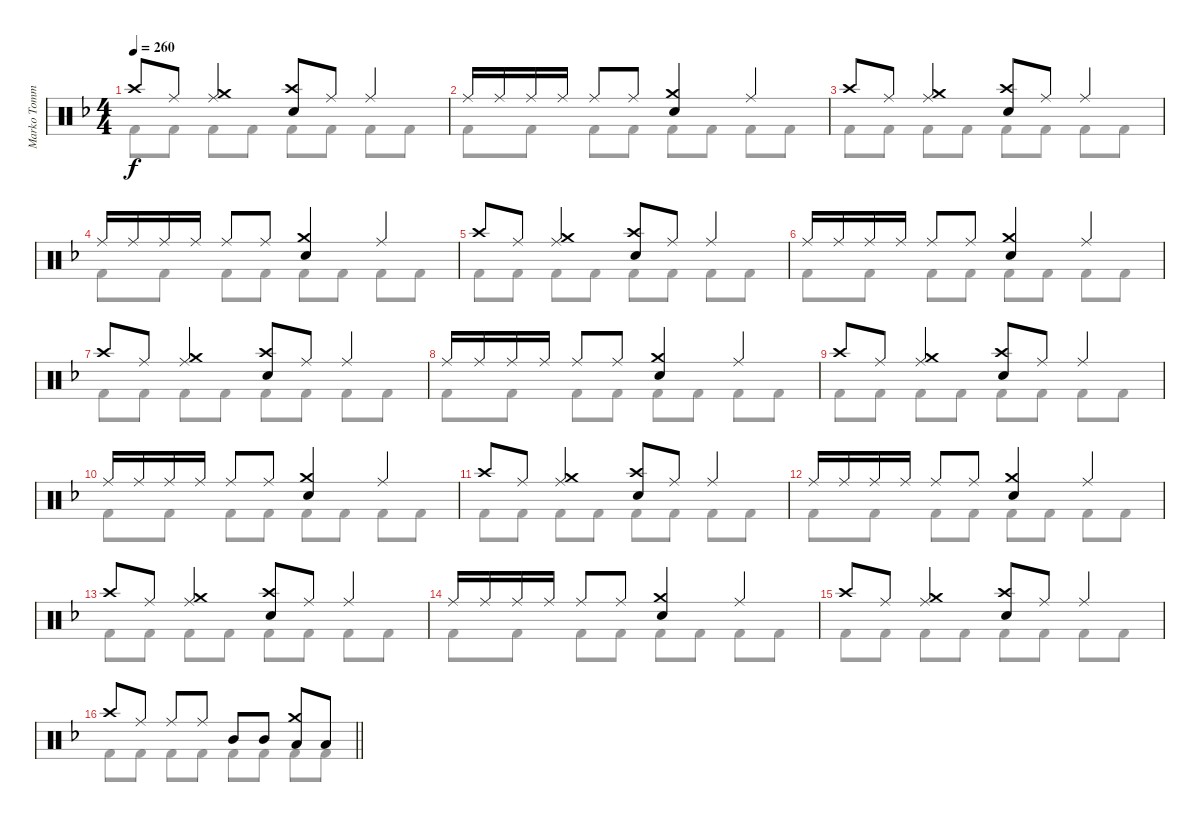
\track ("Marko Tommila (drums)" "Marko Tomm") {instrument percussion}
\staff {score}
\articulation defaults
\voice
\ts (4 4)
\tempo 260
\clef neutral
\ks dminor "Crash high (hit)".8{dy f} "Ride (middle)".8
("Ride (middle)" "Crash medium (hit)").4 ("Crash high (hit)" "Electric Snare (hit)").8 "Ride (middle)".8 "Ride (middle)".4 |
"Ride (middle)".16 "Ride (middle)".16 "Ride (middle)".16 "Ride (middle)".16 "Ride (middle)".8 "Ride (middle)".8 ("Crash medium (hit)" "Electric Snare (hit)").4 "Ride (middle)".4 |
"Crash high (hit)".8 "Ride (middle)".8 ("Ride (middle)" "Crash medium (hit)").4 ("Crash high (hit)" "Electric Snare (hit)").8 "Ride (middle)".8 "Ride (middle)".4 |
"Ride (middle)".16 "Ride (middle)".16 "Ride (middle)".16 "Ride (middle)".16 "Ride (middle)".8 "Ride (middle)".8 ("Crash medium (hit)" "Electric Snare (hit)").4 "Ride (middle)".4 |
"Crash high (hit)".8 "Ride (middle)".8 ("Ride (middle)" "Crash medium (hit)").4 ("Crash high (hit)" "Electric Snare (hit)").8 "Ride (middle)".8 "Ride (middle)".4 |
"Ride (middle)".16 "Ride (middle)".16 "Ride (middle)".16 "Ride (middle)".16 "Ride (middle)".8 "Ride (middle)".8 ("Crash medium (hit)" "Electric Snare (hit)").4 "Ride (middle)".4 |
"Crash high (hit)".8 "Ride (middle)".8 ("Ride (middle)" "Crash medium (hit)").4 ("Crash high (hit)" "Electric Snare (hit)").8 "Ride (middle)".8 "Ride (middle)".4 |
"Ride (middle)".16 "Ride (middle)".16 "Ride (middle)".16 "Ride (middle)".16 "Ride (middle)".8 "Ride (middle)".8 ("Crash medium (hit)" "Electric Snare (hit)").4 "Ride (middle)".4 |
"Crash high (hit)".8 "Ride (middle)".8 ("Ride (middle)" "Crash medium (hit)").4 ("Crash high (hit)" "Electric Snare (hit)").8 "Ride (middle)".8 "Ride (middle)".4 |
"Ride (middle)".16 "Ride (middle)".16 "Ride (middle)".16 "Ride (middle)".16 "Ride (middle)".8 "Ride (middle)".8 ("Crash medium (hit)" "Electric Snare (hit)").4 "Ride (middle)".4 |
"Crash high (hit)".8 "Ride (middle)".8 ("Ride (middle)" "Crash medium (hit)").4 ("Crash high (hit)" "Electric Snare (hit)").8 "Ride (middle)".8 "Ride (middle)".4 |
"Ride (middle)".16 "Ride (middle)".16 "Ride (middle)".16 "Ride (middle)".16 "Ride (middle)".8 "Ride (middle)".8 ("Crash medium (hit)" "Electric Snare (hit)").4 "Ride (middle)".4 |
"Crash high (hit)".8 "Ride (middle)".8 ("Ride (middle)" "Crash medium (hit)").4 ("Crash high (hit)" "Electric Snare (hit)").8 "Ride (middle)".8 "Ride (middle)".4 |
"Ride (middle)".16 "Ride (middle)".16 "Ride (middle)".16 "Ride (middle)".16 "Ride (middle)".8 "Ride (middle)".8 ("Crash medium (hit)" "Electric Snare (hit)").4 "Ride (middle)".4 |
"Crash high (hit)".8 "Ride (middle)".8 ("Ride (middle)" "Crash medium (hit)").4 ("Crash high (hit)" "Electric Snare (hit)").8 "Ride (middle)".8 "Ride (middle)".4 |
\barLineRight lightlight "Crash high (hit)".8 "Ride (middle)".8 "Ride (middle)".8 "Ride (middle)".8 "Mid Tom (hit)".8 "Mid Tom (hit)".8
("Low Tom (hit)" "Crash medium (hit)").8 "Low Tom (hit)".8
\voice
\clef neutral
\ottava regular
\simile none
\ks dminor "Kick (hit) 2".8{dy f} "Kick (hit) 2".8 "Kick (hit) 2".8 "Kick (hit) 2".8 "Kick (hit) 2".8 "Kick (hit) 2".8 "Kick (hit) 2".8 "Kick (hit) 2".8
|
"Kick (hit) 2".8 "Kick (hit) 2".8 "Kick (hit) 2".8 "Kick (hit) 2".8 "Kick (hit) 2".8 "Kick (hit) 2".8 "Kick (hit) 2".8 "Kick (hit) 2".8 |
"Kick (hit) 2".8 "Kick (hit) 2".8 "Kick (hit) 2".8 "Kick (hit) 2".8 "Kick (hit) 2".8 "Kick (hit) 2".8 "Kick (hit) 2".8 "Kick (hit) 2".8 |
"Kick (hit) 2".8 "Kick (hit) 2".8 "Kick (hit) 2".8 "Kick (hit) 2".8 "Kick (hit) 2".8 "Kick (hit) 2".8 "Kick (hit) 2".8 "Kick (hit) 2".8 |
"Kick (hit) 2".8 "Kick (hit) 2".8 "Kick (hit) 2".8 "Kick (hit) 2".8 "Kick (hit) 2".8 "Kick (hit) 2".8 "Kick (hit) 2".8 "Kick (hit) 2".8 |
"Kick (hit) 2".8 "Kick (hit) 2".8 "Kick (hit) 2".8 "Kick (hit) 2".8 "Kick (hit) 2".8 "Kick (hit) 2".8 "Kick (hit) 2".8 "Kick (hit) 2".8 |
"Kick (hit) 2".8 "Kick (hit) 2".8 "Kick (hit) 2".8 "Kick (hit) 2".8 "Kick (hit) 2".8 "Kick (hit) 2".8 "Kick (hit) 2".8 "Kick (hit) 2".8 |
"Kick (hit) 2".8 "Kick (hit) 2".8 "Kick (hit) 2".8 "Kick (hit) 2".8 "Kick (hit) 2".8 "Kick (hit) 2".8 "Kick (hit) 2".8 "Kick (hit) 2".8 |
"Kick (hit) 2".8 "Kick (hit) 2".8 "Kick (hit) 2".8 "Kick (hit) 2".8 "Kick (hit) 2".8 "Kick (hit) 2".8 "Kick (hit) 2".8 "Kick (hit) 2".8 |
"Kick (hit) 2".8 "Kick (hit) 2".8 "Kick (hit) 2".8 "Kick (hit) 2".8 "Kick (hit) 2".8 "Kick (hit) 2".8 "Kick (hit) 2".8 "Kick (hit) 2".8 |
"Kick (hit) 2".8 "Kick (hit) 2".8 "Kick (hit) 2".8 "Kick (hit) 2".8 "Kick (hit) 2".8 "Kick (hit) 2".8 "Kick (hit) 2".8 "Kick (hit) 2".8 |
"Kick (hit) 2".8 "Kick (hit) 2".8 "Kick (hit) 2".8 "Kick (hit) 2".8 "Kick (hit) 2".8 "Kick (hit) 2".8 "Kick (hit) 2".8 "Kick (hit) 2".8 |
"Kick (hit) 2".8 "Kick (hit) 2".8 "Kick (hit) 2".8 "Kick (hit) 2".8 "Kick (hit) 2".8 "Kick (hit) 2".8 "Kick (hit) 2".8 "Kick (hit) 2".8 |
"Kick (hit) 2".8 "Kick (hit) 2".8 "Kick (hit) 2".8 "Kick (hit) 2".8 "Kick (hit) 2".8 "Kick (hit) 2".8 "Kick (hit) 2".8 "Kick (hit) 2".8 |
"Kick (hit) 2".8 "Kick (hit) 2".8 "Kick (hit) 2".8 "Kick (hit) 2".8 "Kick (hit) 2".8 "Kick (hit) 2".8 "Kick (hit) 2".8 "Kick (hit) 2".8 |
\barLineRight lightlight "Kick (hit) 2".8 "Kick (hit) 2".8 "Kick (hit) 2".8 "Kick (hit) 2".8 "Kick (hit) 2".8 "Kick (hit) 2".8 "Kick (hit) 2".8 "Kick (hit) 2".8
